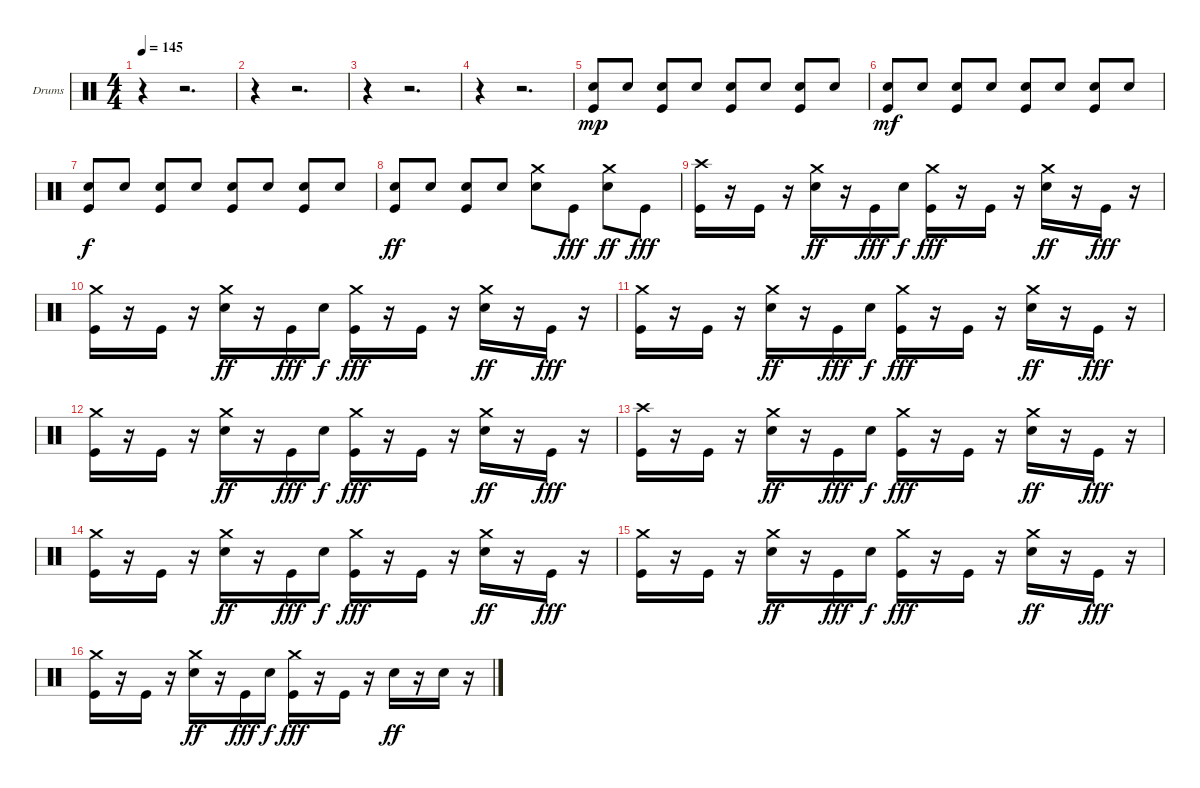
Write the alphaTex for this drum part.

\defaultSystemsLayout 4
\bracketExtendMode groupsimilarinstruments
\firstSystemTrackNameOrientation horizontal
\otherSystemsTrackNameOrientation horizontal
\track ("Drumkit" "Drums") {instrument percussion}
\staff {score}
\articulation defaults
\ts (4 4)
\tempo 145
\clef neutral
\scale
0.472222
\ks c
r.4{dy mp} r.2{d} |
\scale
0.263889 r.4 r.2{d} |
\scale
0.263889 r.4 r.2{d} |
\scale
0.333333 r.4 r.2{d} |
\scale
0.333333 ("Snare (hit) 2" "Kick (hit)").8 "Snare (hit) 2".8 ("Snare (hit) 2" "Kick (hit)").8 "Snare (hit) 2".8 ("Snare (hit) 2" "Kick (hit)").8 "Snare (hit) 2".8 ("Snare (hit) 2" "Kick (hit)").8 "Snare (hit) 2".8 |
\scale
0.333333 ("Snare (hit) 2" "Kick (hit)").8{dy mf} "Snare (hit) 2".8 ("Snare (hit) 2" "Kick (hit)").8 "Snare (hit) 2".8 ("Snare (hit) 2" "Kick (hit)").8 "Snare (hit) 2".8 ("Snare (hit) 2" "Kick (hit)").8 "Snare (hit) 2".8 |
\scale
0.333333 ("Snare (hit) 2" "Kick (hit)").8{dy f} "Snare (hit) 2".8 ("Snare (hit) 2" "Kick (hit)").8 "Snare (hit) 2".8 ("Snare (hit) 2" "Kick (hit)").8 "Snare (hit) 2".8 ("Snare (hit) 2" "Kick (hit)").8 "Snare (hit) 2".8 |
\scale
0.333333 ("Snare (hit) 2" "Kick (hit)").8{dy ff} "Snare (hit) 2".8 ("Snare (hit) 2" "Kick (hit)").8 "Snare (hit) 2".8 ("Snare (hit) 2" "Crash medium (hit)").8 "Kick (hit)".8{dy fff} ("Snare (hit) 2" "Crash medium (hit)").8{dy ff} "Kick (hit)".8{dy fff} |
\scale
0.333333 ("Kick (hit)" "Crash high (hit)").16 r.16 "Kick (hit)".16 r.16 ("Snare (hit) 2" "Crash medium (hit)").16{dy ff} r.16 "Kick (hit)".16{dy fff} "Snare (hit) 2".16{dy f} ("Kick (hit)" "Crash medium (hit)").16{dy fff} r.16 "Kick (hit)".16 r.16 ("Snare (hit) 2" "Crash medium (hit)").16{dy ff} r.16 "Kick (hit)".16{dy fff} r.16 |
\scale
0.333333 ("Kick (hit)" "Crash medium (hit)").16 r.16 "Kick (hit)".16 r.16 ("Snare (hit) 2" "Crash medium (hit)").16{dy ff} r.16 "Kick (hit)".16{dy fff} "Snare (hit) 2".16{dy f} ("Kick (hit)" "Crash medium (hit)").16{dy fff} r.16 "Kick (hit)".16 r.16 ("Snare (hit) 2" "Crash medium (hit)").16{dy ff} r.16 "Kick (hit)".16{dy fff} r.16 |
\scale
0.333333 ("Kick (hit)" "Crash medium (hit)").16 r.16 "Kick (hit)".16 r.16 ("Snare (hit) 2" "Crash medium (hit)").16{dy ff} r.16 "Kick (hit)".16{dy fff} "Snare (hit) 2".16{dy f} ("Kick (hit)" "Crash medium (hit)").16{dy fff} r.16 "Kick (hit)".16 r.16 ("Snare (hit) 2" "Crash medium (hit)").16{dy ff} r.16 "Kick (hit)".16{dy fff} r.16 |
\scale
0.333333 ("Kick (hit)" "Crash medium (hit)").16 r.16 "Kick (hit)".16 r.16 ("Snare (hit) 2" "Crash medium (hit)").16{dy ff} r.16 "Kick (hit)".16{dy fff} "Snare (hit) 2".16{dy f} ("Kick (hit)" "Crash medium (hit)").16{dy fff} r.16 "Kick (hit)".16 r.16 ("Snare (hit) 2" "Crash medium (hit)").16{dy ff} r.16 "Kick (hit)".16{dy fff} r.16 |
\scale
0.333333 ("Kick (hit)" "Crash high (hit)").16 r.16 "Kick (hit)".16 r.16 ("Snare (hit) 2" "Crash medium (hit)").16{dy ff} r.16 "Kick (hit)".16{dy fff} "Snare (hit) 2".16{dy f} ("Kick (hit)" "Crash medium (hit)").16{dy fff} r.16 "Kick (hit)".16 r.16 ("Snare (hit) 2" "Crash medium (hit)").16{dy ff} r.16 "Kick (hit)".16{dy fff} r.16 |
\scale
0.333333 ("Kick (hit)" "Crash medium (hit)").16 r.16 "Kick (hit)".16 r.16 ("Snare (hit) 2" "Crash medium (hit)").16{dy ff} r.16 "Kick (hit)".16{dy fff} "Snare (hit) 2".16{dy f} ("Kick (hit)" "Crash medium (hit)").16{dy fff} r.16 "Kick (hit)".16 r.16 ("Snare (hit) 2" "Crash medium (hit)").16{dy ff} r.16 "Kick (hit)".16{dy fff} r.16 |
\scale
0.333333 ("Kick (hit)" "Crash medium (hit)").16 r.16 "Kick (hit)".16 r.16 ("Snare (hit) 2" "Crash medium (hit)").16{dy ff} r.16 "Kick (hit)".16{dy fff} "Snare (hit) 2".16{dy f} ("Kick (hit)" "Crash medium (hit)").16{dy fff} r.16 "Kick (hit)".16 r.16 ("Snare (hit) 2" "Crash medium (hit)").16{dy ff} r.16 "Kick (hit)".16{dy fff} r.16 |
\scale
0.333333 ("Kick (hit)" "Crash medium (hit)").16 r.16 "Kick (hit)".16 r.16 ("Snare (hit) 2" "Crash medium (hit)").16{dy ff} r.16 "Kick (hit)".16{dy fff} "Snare (hit) 2".16{dy f} ("Kick (hit)" "Crash medium (hit)").16{dy fff} r.16 "Kick (hit)".16 r.16 "Snare (hit) 2".16{dy ff} r.16 "Snare (hit) 2".16 r.16
